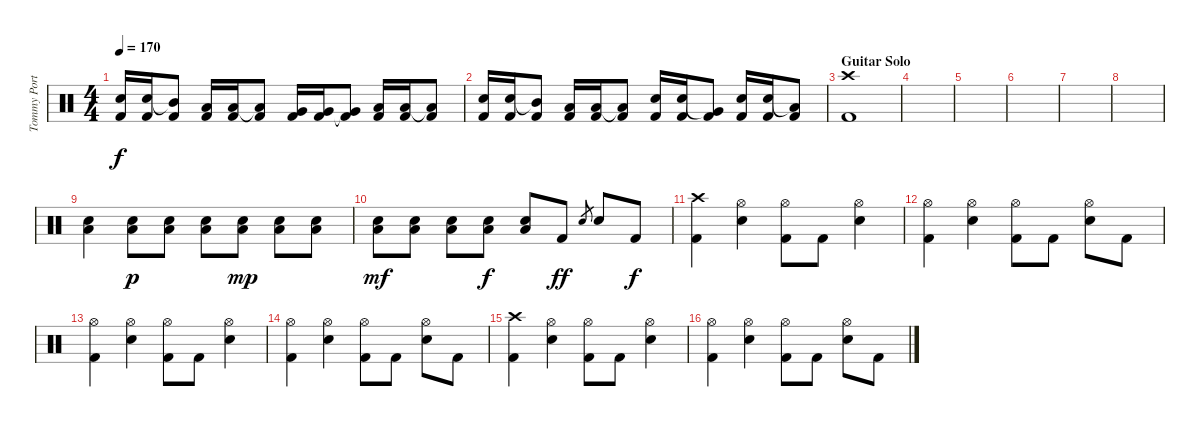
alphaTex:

\track ("Tommy Portino" "Tommy Port") {instrument percussion}
\staff {score}
\articulation defaults
\ts (4 4)
\tempo 170
\clef neutral
\ks c
("Electric Snare (hit)" "Kick (hit) 2").16{dy f} ("Electric Snare (hit)" "Kick (hit) 2").16 ("Mid Tom (hit)"{t} "Kick (hit) 2").8 ("Low Tom (hit)" "Kick (hit) 2").16 ("Low Tom (hit)" "Kick (hit) 2").16 ("Low Tom (hit)"{t} "Kick (hit) 2").8 ("Very Low Tom (hit)" "Kick (hit) 2").16 ("Very Low Tom (hit)" "Kick (hit) 2").16 ("Very Low Tom (hit)"{t} "Kick (hit) 2").8 ("Low Floor Tom (hit)" "Kick (hit) 2").16 ("Low Floor Tom (hit)" "Kick (hit) 2").16 ("Low Floor Tom (hit)"{t} "Kick (hit) 2").8 |
("Electric Snare (hit)" "Kick (hit) 2").16 ("Electric Snare (hit)" "Kick (hit) 2").16 ("Mid Tom (hit)"{t} "Kick (hit) 2").8 ("Low Tom (hit)" "Kick (hit) 2").16 ("Low Tom (hit)" "Kick (hit) 2").16 ("Low Tom (hit)"{t} "Kick (hit) 2").8 ("Electric Snare (hit)" "Kick (hit) 2").16 ("Electric Snare (hit)" "Kick (hit) 2").16 ("Very Low Tom (hit)"{t} "Kick (hit) 2").8 ("Electric Snare (hit)" "Kick (hit) 2").16 ("Electric Snare (hit)" "Kick (hit) 2").16 ("Low Floor Tom (hit)"{t} "Kick (hit) 2").8 |
\section ("" "Guitar Solo")
("Crash high (hit)" "Kick (hit) 2").1 |
|
|
|
|
|
("Electric Snare (hit)" "Low Floor Tom (hit)").4 ("Electric Snare (hit)" "Low Floor Tom (hit)").8{dy p} ("Electric Snare (hit)" "Low Floor Tom (hit)").8 ("Electric Snare (hit)" "Low Floor Tom (hit)").8 ("Electric Snare (hit)" "Low Floor Tom (hit)").8{dy mp} ("Electric Snare (hit)" "Low Floor Tom (hit)").8 ("Electric Snare (hit)" "Low Floor Tom (hit)").8 |
("Electric Snare (hit)" "Low Floor Tom (hit)").8{dy mf} ("Electric Snare (hit)" "Low Floor Tom (hit)").8 ("Electric Snare (hit)" "Low Floor Tom (hit)").8 ("Electric Snare (hit)" "Low Floor Tom (hit)").8{dy f} ("Electric Snare (hit)" "Low Floor Tom (hit)").8 "Kick (hit) 2".8{dy ff} "Electric Snare (hit)".8{gr} "Electric Snare (hit)".8 "Kick (hit) 2".8{dy f} |
("Crash high (hit)" "Kick (hit) 2").4 ("Hi-Hat (open)" "Electric Snare (hit)").4 ("Hi-Hat (open)" "Kick (hit) 2").8 "Kick (hit) 2".8 ("Hi-Hat (open)" "Electric Snare (hit)").4 |
("Hi-Hat (open)" "Kick (hit) 2").4 ("Hi-Hat (open)" "Electric Snare (hit)").4 ("Hi-Hat (open)" "Kick (hit) 2").8 "Kick (hit) 2".8 ("Hi-Hat (open)" "Electric Snare (hit)").8 "Kick (hit) 2".8 |
("Hi-Hat (open)" "Kick (hit) 2").4 ("Hi-Hat (open)" "Electric Snare (hit)").4 ("Hi-Hat (open)" "Kick (hit) 2").8 "Kick (hit) 2".8 ("Hi-Hat (open)" "Electric Snare (hit)").4 |
("Hi-Hat (open)" "Kick (hit) 2").4 ("Hi-Hat (open)" "Electric Snare (hit)").4 ("Hi-Hat (open)" "Kick (hit) 2").8 "Kick (hit) 2".8 ("Hi-Hat (open)" "Electric Snare (hit)").8 "Kick (hit) 2".8 |
("Crash high (hit)" "Kick (hit) 2").4 ("Hi-Hat (open)" "Electric Snare (hit)").4 ("Hi-Hat (open)" "Kick (hit) 2").8 "Kick (hit) 2".8 ("Hi-Hat (open)" "Electric Snare (hit)").4 |
("Hi-Hat (open)" "Kick (hit) 2").4 ("Hi-Hat (open)" "Electric Snare (hit)").4 ("Hi-Hat (open)" "Kick (hit) 2").8 "Kick (hit) 2".8 ("Hi-Hat (open)" "Electric Snare (hit)").8 "Kick (hit) 2".8
